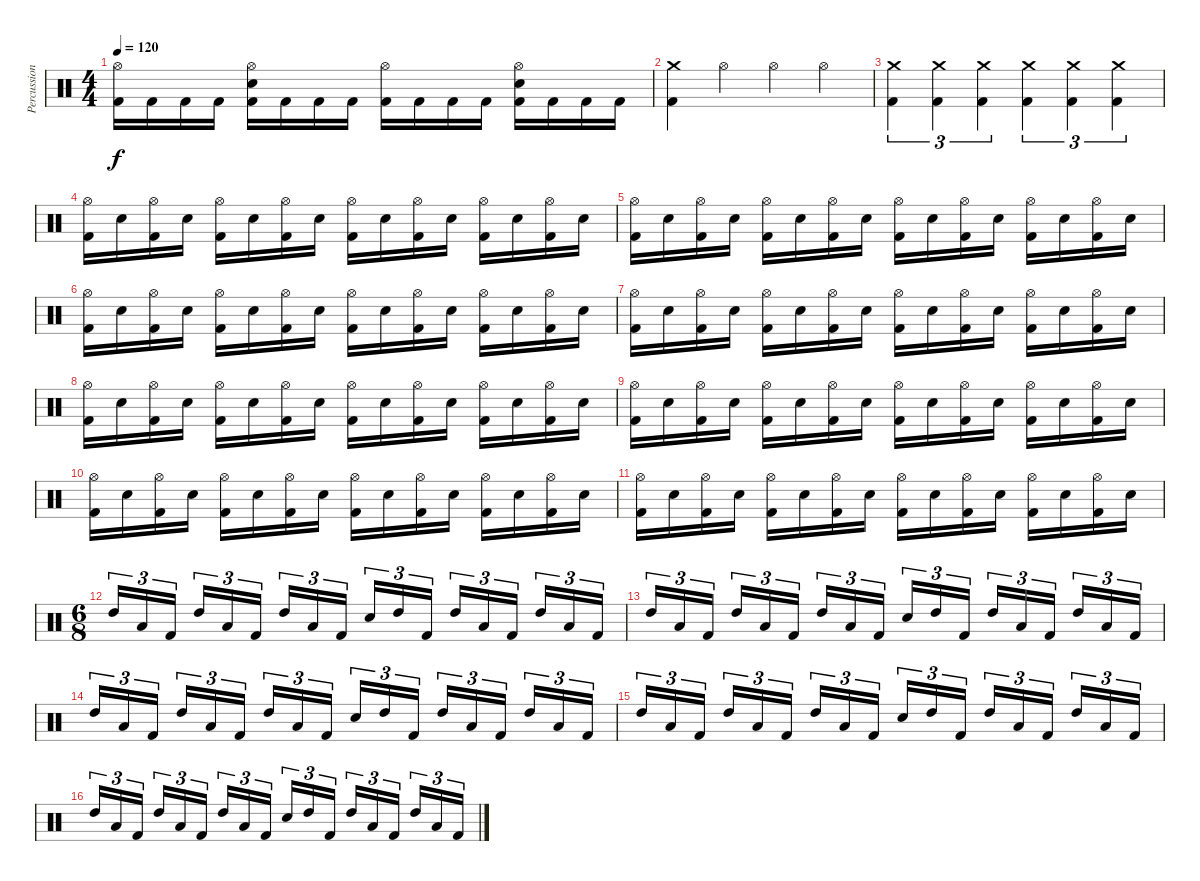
\track ("Percussion" "Percussion") {instrument percussion}
\staff {score}
\articulation defaults
\ts (4 4)
\tempo 120
\clef neutral
\ks c
("Hi-Hat (open)" "Kick (hit) 2").16{dy f} "Kick (hit) 2".16 "Kick (hit) 2".16 "Kick (hit) 2".16 ("Hi-Hat (open)" "Electric Snare (hit)" "Kick (hit) 2").16 "Kick (hit) 2".16 "Kick (hit) 2".16 "Kick (hit) 2".16 ("Hi-Hat (open)" "Kick (hit) 2").16 "Kick (hit) 2".16 "Kick (hit) 2".16 "Kick (hit) 2".16 ("Hi-Hat (open)" "Electric Snare (hit)" "Kick (hit) 2").16 "Kick (hit) 2".16 "Kick (hit) 2".16 "Kick (hit) 2".16 |
("Crash medium (hit)" "Kick (hit) 2").4 "Hi-Hat (open)".4 "Hi-Hat (open)".4 "Hi-Hat (open)".4 |
("Crash medium (hit)" "Kick (hit) 2").4{tu (3 2)} ("Crash medium (hit)" "Kick (hit) 2").4{tu (3 2)} ("Crash medium (hit)" "Kick (hit) 2").4{tu (3 2)} ("Crash medium (hit)" "Kick (hit) 2").4{tu (3 2)} ("Crash medium (hit)" "Kick (hit) 2").4{tu (3 2)} ("Crash medium (hit)" "Kick (hit) 2").4{tu (3 2)} |
("Hi-Hat (open)" "Kick (hit) 2").16 "Electric Snare (hit)".16 ("Hi-Hat (open)" "Kick (hit) 2").16 "Electric Snare (hit)".16 ("Hi-Hat (open)" "Kick (hit) 2").16 "Electric Snare (hit)".16 ("Hi-Hat (open)" "Kick (hit) 2").16 "Electric Snare (hit)".16 ("Hi-Hat (open)" "Kick (hit) 2").16 "Electric Snare (hit)".16 ("Hi-Hat (open)" "Kick (hit) 2").16 "Electric Snare (hit)".16 ("Hi-Hat (open)" "Kick (hit) 2").16 "Electric Snare (hit)".16 ("Hi-Hat (open)" "Kick (hit) 2").16 "Electric Snare (hit)".16 |
("Hi-Hat (open)" "Kick (hit) 2").16 "Electric Snare (hit)".16 ("Hi-Hat (open)" "Kick (hit) 2").16 "Electric Snare (hit)".16 ("Hi-Hat (open)" "Kick (hit) 2").16 "Electric Snare (hit)".16 ("Hi-Hat (open)" "Kick (hit) 2").16 "Electric Snare (hit)".16 ("Hi-Hat (open)" "Kick (hit) 2").16 "Electric Snare (hit)".16 ("Hi-Hat (open)" "Kick (hit) 2").16 "Electric Snare (hit)".16 ("Hi-Hat (open)" "Kick (hit) 2").16 "Electric Snare (hit)".16 ("Hi-Hat (open)" "Kick (hit) 2").16 "Electric Snare (hit)".16 |
("Hi-Hat (open)" "Kick (hit) 2").16 "Electric Snare (hit)".16 ("Hi-Hat (open)" "Kick (hit) 2").16 "Electric Snare (hit)".16 ("Hi-Hat (open)" "Kick (hit) 2").16 "Electric Snare (hit)".16 ("Hi-Hat (open)" "Kick (hit) 2").16 "Electric Snare (hit)".16 ("Hi-Hat (open)" "Kick (hit) 2").16 "Electric Snare (hit)".16 ("Hi-Hat (open)" "Kick (hit) 2").16 "Electric Snare (hit)".16 ("Hi-Hat (open)" "Kick (hit) 2").16 "Electric Snare (hit)".16 ("Hi-Hat (open)" "Kick (hit) 2").16 "Electric Snare (hit)".16 |
("Hi-Hat (open)" "Kick (hit) 2").16 "Electric Snare (hit)".16 ("Hi-Hat (open)" "Kick (hit) 2").16 "Electric Snare (hit)".16 ("Hi-Hat (open)" "Kick (hit) 2").16 "Electric Snare (hit)".16 ("Hi-Hat (open)" "Kick (hit) 2").16 "Electric Snare (hit)".16 ("Hi-Hat (open)" "Kick (hit) 2").16 "Electric Snare (hit)".16 ("Hi-Hat (open)" "Kick (hit) 2").16 "Electric Snare (hit)".16 ("Hi-Hat (open)" "Kick (hit) 2").16 "Electric Snare (hit)".16 ("Hi-Hat (open)" "Kick (hit) 2").16 "Electric Snare (hit)".16 |
("Hi-Hat (open)" "Kick (hit) 2").16 "Electric Snare (hit)".16 ("Hi-Hat (open)" "Kick (hit) 2").16 "Electric Snare (hit)".16 ("Hi-Hat (open)" "Kick (hit) 2").16 "Electric Snare (hit)".16 ("Hi-Hat (open)" "Kick (hit) 2").16 "Electric Snare (hit)".16 ("Hi-Hat (open)" "Kick (hit) 2").16 "Electric Snare (hit)".16 ("Hi-Hat (open)" "Kick (hit) 2").16 "Electric Snare (hit)".16 ("Hi-Hat (open)" "Kick (hit) 2").16 "Electric Snare (hit)".16 ("Hi-Hat (open)" "Kick (hit) 2").16 "Electric Snare (hit)".16 |
("Hi-Hat (open)" "Kick (hit) 2").16 "Electric Snare (hit)".16 ("Hi-Hat (open)" "Kick (hit) 2").16 "Electric Snare (hit)".16 ("Hi-Hat (open)" "Kick (hit) 2").16 "Electric Snare (hit)".16 ("Hi-Hat (open)" "Kick (hit) 2").16 "Electric Snare (hit)".16 ("Hi-Hat (open)" "Kick (hit) 2").16 "Electric Snare (hit)".16 ("Hi-Hat (open)" "Kick (hit) 2").16 "Electric Snare (hit)".16 ("Hi-Hat (open)" "Kick (hit) 2").16 "Electric Snare (hit)".16 ("Hi-Hat (open)" "Kick (hit) 2").16 "Electric Snare (hit)".16 |
("Hi-Hat (open)" "Kick (hit) 2").16 "Electric Snare (hit)".16 ("Hi-Hat (open)" "Kick (hit) 2").16 "Electric Snare (hit)".16 ("Hi-Hat (open)" "Kick (hit) 2").16 "Electric Snare (hit)".16 ("Hi-Hat (open)" "Kick (hit) 2").16 "Electric Snare (hit)".16 ("Hi-Hat (open)" "Kick (hit) 2").16 "Electric Snare (hit)".16 ("Hi-Hat (open)" "Kick (hit) 2").16 "Electric Snare (hit)".16 ("Hi-Hat (open)" "Kick (hit) 2").16 "Electric Snare (hit)".16 ("Hi-Hat (open)" "Kick (hit) 2").16 "Electric Snare (hit)".16 |
("Hi-Hat (open)" "Kick (hit) 2").16 "Electric Snare (hit)".16 ("Hi-Hat (open)" "Kick (hit) 2").16 "Electric Snare (hit)".16 ("Hi-Hat (open)" "Kick (hit) 2").16 "Electric Snare (hit)".16 ("Hi-Hat (open)" "Kick (hit) 2").16 "Electric Snare (hit)".16 ("Hi-Hat (open)" "Kick (hit) 2").16 "Electric Snare (hit)".16 ("Hi-Hat (open)" "Kick (hit) 2").16 "Electric Snare (hit)".16 ("Hi-Hat (open)" "Kick (hit) 2").16 "Electric Snare (hit)".16 ("Hi-Hat (open)" "Kick (hit) 2").16 "Electric Snare (hit)".16 |
\ts (6 8)
"High Tom (hit)".16{tu (3 2)} "Low Tom (hit)".16{tu (3 2)} "Kick (hit) 2".16{tu (3 2) beam splitsecondary} "High Tom (hit)".16{tu (3 2)} "Low Tom (hit)".16{tu (3 2)} "Kick (hit) 2".16{tu (3 2) beam splitsecondary} "High Tom (hit)".16{tu (3 2)} "Low Tom (hit)".16{tu (3 2)} "Kick (hit) 2".16{tu (3 2)} "Electric Snare (hit)".16{tu (3 2)} "High Tom (hit)".16{tu (3 2)} "Kick (hit) 2".16{tu (3 2) beam splitsecondary} "High Tom (hit)".16{tu (3 2)} "Low Tom (hit)".16{tu (3 2)} "Kick (hit) 2".16{tu (3 2) beam splitsecondary} "High Tom (hit)".16{tu (3 2)} "Low Tom (hit)".16{tu (3 2)} "Kick (hit) 2".16{tu (3 2)} |
"High Tom (hit)".16{tu (3 2)} "Low Tom (hit)".16{tu (3 2)} "Kick (hit) 2".16{tu (3 2) beam splitsecondary} "High Tom (hit)".16{tu (3 2)} "Low Tom (hit)".16{tu (3 2)} "Kick (hit) 2".16{tu (3 2) beam splitsecondary} "High Tom (hit)".16{tu (3 2)} "Low Tom (hit)".16{tu (3 2)} "Kick (hit) 2".16{tu (3 2)} "Electric Snare (hit)".16{tu (3 2)} "High Tom (hit)".16{tu (3 2)} "Kick (hit) 2".16{tu (3 2) beam splitsecondary} "High Tom (hit)".16{tu (3 2)} "Low Tom (hit)".16{tu (3 2)} "Kick (hit) 2".16{tu (3 2) beam splitsecondary} "High Tom (hit)".16{tu (3 2)} "Low Tom (hit)".16{tu (3 2)} "Kick (hit) 2".16{tu (3 2)} |
"High Tom (hit)".16{tu (3 2)} "Low Tom (hit)".16{tu (3 2)} "Kick (hit) 2".16{tu (3 2) beam splitsecondary} "High Tom (hit)".16{tu (3 2)} "Low Tom (hit)".16{tu (3 2)} "Kick (hit) 2".16{tu (3 2) beam splitsecondary} "High Tom (hit)".16{tu (3 2)} "Low Tom (hit)".16{tu (3 2)} "Kick (hit) 2".16{tu (3 2)} "Electric Snare (hit)".16{tu (3 2)} "High Tom (hit)".16{tu (3 2)} "Kick (hit) 2".16{tu (3 2) beam splitsecondary} "High Tom (hit)".16{tu (3 2)} "Low Tom (hit)".16{tu (3 2)} "Kick (hit) 2".16{tu (3 2) beam splitsecondary} "High Tom (hit)".16{tu (3 2)} "Low Tom (hit)".16{tu (3 2)} "Kick (hit) 2".16{tu (3 2)} |
"High Tom (hit)".16{tu (3 2)} "Low Tom (hit)".16{tu (3 2)} "Kick (hit) 2".16{tu (3 2) beam splitsecondary} "High Tom (hit)".16{tu (3 2)} "Low Tom (hit)".16{tu (3 2)} "Kick (hit) 2".16{tu (3 2) beam splitsecondary} "High Tom (hit)".16{tu (3 2)} "Low Tom (hit)".16{tu (3 2)} "Kick (hit) 2".16{tu (3 2)} "Electric Snare (hit)".16{tu (3 2)} "High Tom (hit)".16{tu (3 2)} "Kick (hit) 2".16{tu (3 2) beam splitsecondary} "High Tom (hit)".16{tu (3 2)} "Low Tom (hit)".16{tu (3 2)} "Kick (hit) 2".16{tu (3 2) beam splitsecondary} "High Tom (hit)".16{tu (3 2)} "Low Tom (hit)".16{tu (3 2)} "Kick (hit) 2".16{tu (3 2)} |
"High Tom (hit)".16{tu (3 2)} "Low Tom (hit)".16{tu (3 2)} "Kick (hit) 2".16{tu (3 2) beam splitsecondary} "High Tom (hit)".16{tu (3 2)} "Low Tom (hit)".16{tu (3 2)} "Kick (hit) 2".16{tu (3 2) beam splitsecondary} "High Tom (hit)".16{tu (3 2)} "Low Tom (hit)".16{tu (3 2)} "Kick (hit) 2".16{tu (3 2)} "Electric Snare (hit)".16{tu (3 2)} "High Tom (hit)".16{tu (3 2)} "Kick (hit) 2".16{tu (3 2) beam splitsecondary} "High Tom (hit)".16{tu (3 2)} "Low Tom (hit)".16{tu (3 2)} "Kick (hit) 2".16{tu (3 2) beam splitsecondary} "High Tom (hit)".16{tu (3 2)} "Low Tom (hit)".16{tu (3 2)} "Kick (hit) 2".16{tu (3 2)}
